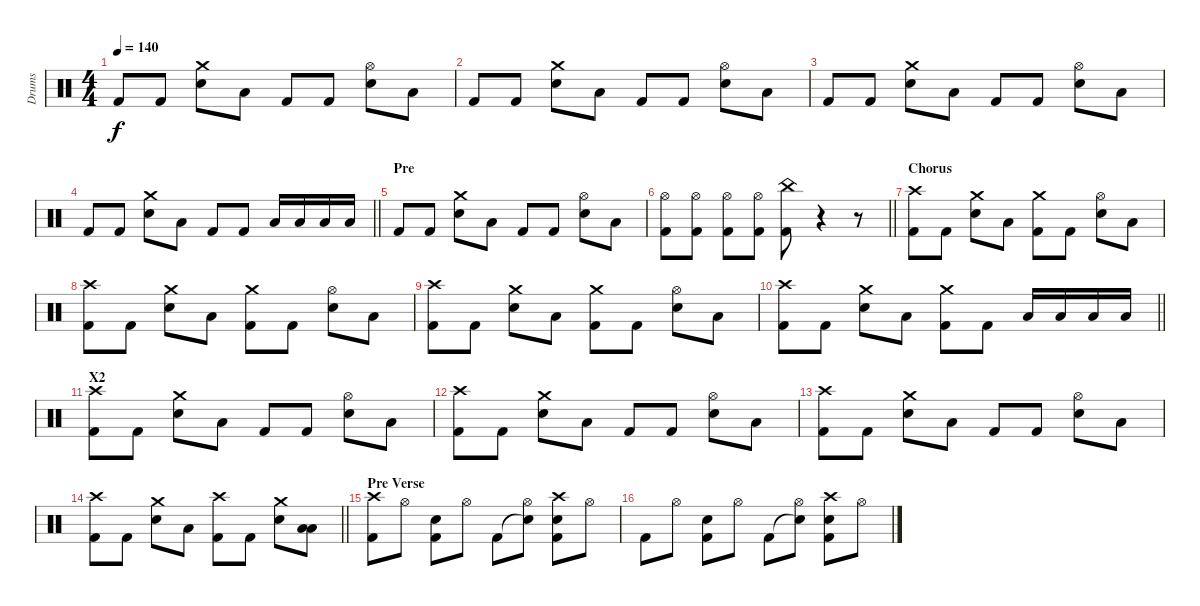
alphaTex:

\track ("Drums" "Drums") {instrument percussion}
\staff
\articulation defaults
\ts (4 4)
\tempo 140
\clef neutral
\ks c "Kick (hit) 2".8{dy f} "Kick (hit) 2".8
("Snare (hit) 2" "Crash medium (hit)").8 "Low Floor Tom (hit)".8 "Kick (hit) 2".8 "Kick (hit) 2".8 ("Snare (hit) 2" "Hi-Hat (open)").8 "Low Floor Tom (hit)".8 |
"Kick (hit) 2".8 "Kick (hit) 2".8 ("Snare (hit) 2" "Crash medium (hit)").8 "Low Floor Tom (hit)".8 "Kick (hit) 2".8 "Kick (hit) 2".8 ("Snare (hit) 2" "Hi-Hat (open)").8 "Low Floor Tom (hit)".8 |
"Kick (hit) 2".8 "Kick (hit) 2".8 ("Snare (hit) 2" "Crash medium (hit)").8 "Low Floor Tom (hit)".8 "Kick (hit) 2".8 "Kick (hit) 2".8 ("Snare (hit) 2" "Hi-Hat (open)").8 "Low Floor Tom (hit)".8 |
\barLineRight lightlight "Kick (hit) 2".8 "Kick (hit) 2".8
("Snare (hit) 2" "Crash medium (hit)").8 "Low Floor Tom (hit)".8 "Kick (hit) 2".8 "Kick (hit) 2".8 "Low Tom (hit)".16 "Low Tom (hit)".16 "Low Floor Tom (hit)".16 "Low Floor Tom (hit)".16 |
\section ("" "Pre")
"Kick (hit) 2".8 "Kick (hit) 2".8 ("Snare (hit) 2" "Crash medium (hit)").8 "Low Floor Tom (hit)".8 "Kick (hit) 2".8 "Kick (hit) 2".8 ("Snare (hit) 2" "Hi-Hat (open)").8 "Low Floor Tom (hit)".8 |
\barLineRight lightlight
("Hi-Hat (open)" "Kick (hit) 2").8 ("Hi-Hat (open)" "Kick (hit) 2").8 ("Hi-Hat (open)" "Kick (hit) 2").8 ("Hi-Hat (open)" "Kick (hit) 2").8 ("China (hit)" "Kick (hit) 2").8 r.4 r.8 |
\section ("" "Chorus")
("Crash high (hit)" "Kick (hit) 2").8 "Kick (hit) 2".8 ("Snare (hit) 2" "Crash medium (hit)").8 "Low Floor Tom (hit)".8 ("Crash medium (hit)" "Kick (hit) 2").8 "Kick (hit) 2".8 ("Snare (hit) 2" "Hi-Hat (open)").8 "Low Floor Tom (hit)".8 |
("Crash high (hit)" "Kick (hit) 2").8 "Kick (hit) 2".8 ("Snare (hit) 2" "Crash medium (hit)").8 "Low Floor Tom (hit)".8 ("Crash medium (hit)" "Kick (hit) 2").8 "Kick (hit) 2".8 ("Snare (hit) 2" "Hi-Hat (open)").8 "Low Floor Tom (hit)".8 |
("Crash high (hit)" "Kick (hit) 2").8 "Kick (hit) 2".8 ("Snare (hit) 2" "Crash medium (hit)").8 "Low Floor Tom (hit)".8 ("Crash medium (hit)" "Kick (hit) 2").8 "Kick (hit) 2".8 ("Snare (hit) 2" "Hi-Hat (open)").8 "Low Floor Tom (hit)".8 |
\barLineRight lightlight
("Crash high (hit)" "Kick (hit) 2").8 "Kick (hit) 2".8 ("Snare (hit) 2" "Crash medium (hit)").8 "Low Floor Tom (hit)".8 ("Crash medium (hit)" "Kick (hit) 2").8 "Kick (hit) 2".8 "Low Tom (hit)".16 "Low Tom (hit)".16 "Low Floor Tom (hit)".16 "Low Floor Tom (hit)".16 |
\section ("" "X2")
("Crash high (hit)" "Kick (hit) 2").8 "Kick (hit) 2".8 ("Snare (hit) 2" "Crash medium (hit)").8 "Low Floor Tom (hit)".8 "Kick (hit) 2".8 "Kick (hit) 2".8 ("Snare (hit) 2" "Hi-Hat (open)").8 "Low Floor Tom (hit)".8 |
("Crash high (hit)" "Kick (hit) 2").8 "Kick (hit) 2".8 ("Snare (hit) 2" "Crash medium (hit)").8 "Low Floor Tom (hit)".8 "Kick (hit) 2".8 "Kick (hit) 2".8 ("Snare (hit) 2" "Hi-Hat (open)").8 "Low Floor Tom (hit)".8 |
("Crash high (hit)" "Kick (hit) 2").8 "Kick (hit) 2".8 ("Snare (hit) 2" "Crash medium (hit)").8 "Low Floor Tom (hit)".8 "Kick (hit) 2".8 "Kick (hit) 2".8 ("Snare (hit) 2" "Hi-Hat (open)").8 "Low Floor Tom (hit)".8 |
\barLineRight lightlight
("Crash high (hit)" "Kick (hit) 2").8 "Kick (hit) 2".8 ("Snare (hit) 2" "Crash medium (hit)").8 "Low Floor Tom (hit)".8 ("Crash high (hit)" "Kick (hit) 2").8 "Kick (hit) 2".8 ("Snare (hit) 2" "Crash medium (hit)").8 ("Low Tom (hit)" "Low Floor Tom (hit)").8 |
\section ("" "Pre Verse")
("Crash high (hit)" "Kick (hit) 2").8 "Hi-Hat (open)".8 ("Snare (hit) 2" "Kick (hit) 2").8 "Hi-Hat (open)".8 "Kick (hit) 2".8 ("Snare (hit)"{t} "Hi-Hat (open)").8 ("Crash high (hit)" "Snare (hit) 2" "Kick (hit) 2").8 "Hi-Hat (open)".8 |
"Kick (hit) 2".8 "Hi-Hat (open)".8 ("Snare (hit) 2" "Kick (hit) 2").8 "Hi-Hat (open)".8 "Kick (hit) 2".8 ("Snare (hit)"{t} "Hi-Hat (open)").8 ("Crash high (hit)" "Snare (hit) 2" "Kick (hit) 2").8 "Hi-Hat (open)".8
